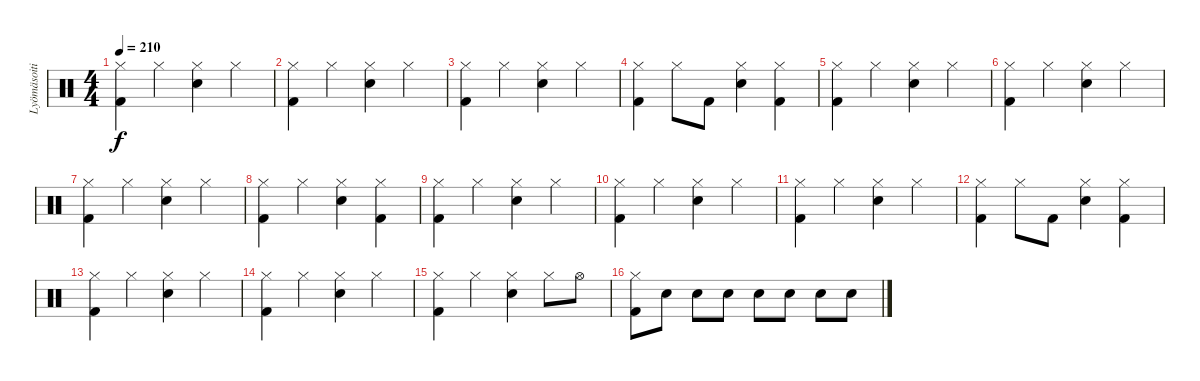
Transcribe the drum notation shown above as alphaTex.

\track ("Lyömäsoitin" "Lyömäsoiti") {instrument percussion}
\staff {score}
\articulation defaults
\ts (4 4)
\tempo 210
\clef neutral
\ks c
("Hi-Hat (closed)" "Kick (hit) 2").4{dy f} "Hi-Hat (closed)".4 ("Hi-Hat (closed)" "Electric Snare (hit)").4 "Hi-Hat (closed)".4 |
("Hi-Hat (closed)" "Kick (hit) 2").4 "Hi-Hat (closed)".4 ("Hi-Hat (closed)" "Electric Snare (hit)").4 "Hi-Hat (closed)".4 |
("Hi-Hat (closed)" "Kick (hit) 2").4 "Hi-Hat (closed)".4 ("Hi-Hat (closed)" "Electric Snare (hit)").4 "Hi-Hat (closed)".4 |
("Hi-Hat (closed)" "Kick (hit) 2").4 "Hi-Hat (closed)".8 "Kick (hit) 2".8 ("Hi-Hat (closed)" "Electric Snare (hit)").4 ("Hi-Hat (closed)" "Kick (hit) 2").4 |
("Hi-Hat (closed)" "Kick (hit) 2").4 "Hi-Hat (closed)".4 ("Hi-Hat (closed)" "Electric Snare (hit)").4 "Hi-Hat (closed)".4 |
("Hi-Hat (closed)" "Kick (hit) 2").4 "Hi-Hat (closed)".4 ("Hi-Hat (closed)" "Electric Snare (hit)").4 "Hi-Hat (closed)".4 |
("Hi-Hat (closed)" "Kick (hit) 2").4 "Hi-Hat (closed)".4 ("Hi-Hat (closed)" "Electric Snare (hit)").4 "Hi-Hat (closed)".4 |
("Hi-Hat (closed)" "Kick (hit) 2").4 "Hi-Hat (closed)".4 ("Hi-Hat (closed)" "Electric Snare (hit)").4 ("Hi-Hat (closed)" "Kick (hit) 2").4 |
("Hi-Hat (closed)" "Kick (hit) 2").4 "Hi-Hat (closed)".4 ("Hi-Hat (closed)" "Electric Snare (hit)").4 "Hi-Hat (closed)".4 |
("Hi-Hat (closed)" "Kick (hit) 2").4 "Hi-Hat (closed)".4 ("Hi-Hat (closed)" "Electric Snare (hit)").4 "Hi-Hat (closed)".4 |
("Hi-Hat (closed)" "Kick (hit) 2").4 "Hi-Hat (closed)".4 ("Hi-Hat (closed)" "Electric Snare (hit)").4 "Hi-Hat (closed)".4 |
("Hi-Hat (closed)" "Kick (hit) 2").4 "Hi-Hat (closed)".8 "Kick (hit) 2".8 ("Hi-Hat (closed)" "Electric Snare (hit)").4 ("Hi-Hat (closed)" "Kick (hit) 2").4 |
("Hi-Hat (closed)" "Kick (hit) 2").4 "Hi-Hat (closed)".4 ("Hi-Hat (closed)" "Electric Snare (hit)").4 "Hi-Hat (closed)".4 |
("Hi-Hat (closed)" "Kick (hit) 2").4 "Hi-Hat (closed)".4 ("Hi-Hat (closed)" "Electric Snare (hit)").4 "Hi-Hat (closed)".4 |
("Hi-Hat (closed)" "Kick (hit) 2").4 "Hi-Hat (closed)".4 ("Hi-Hat (closed)" "Electric Snare (hit)").4 "Hi-Hat (closed)".8 "Hi-Hat (open)".8 |
("Hi-Hat (closed)" "Kick (hit) 2").8 "Electric Snare (hit)".8 "Electric Snare (hit)".8 "Electric Snare (hit)".8 "Electric Snare (hit)".8 "Electric Snare (hit)".8 "Electric Snare (hit)".8 "Electric Snare (hit)".8
